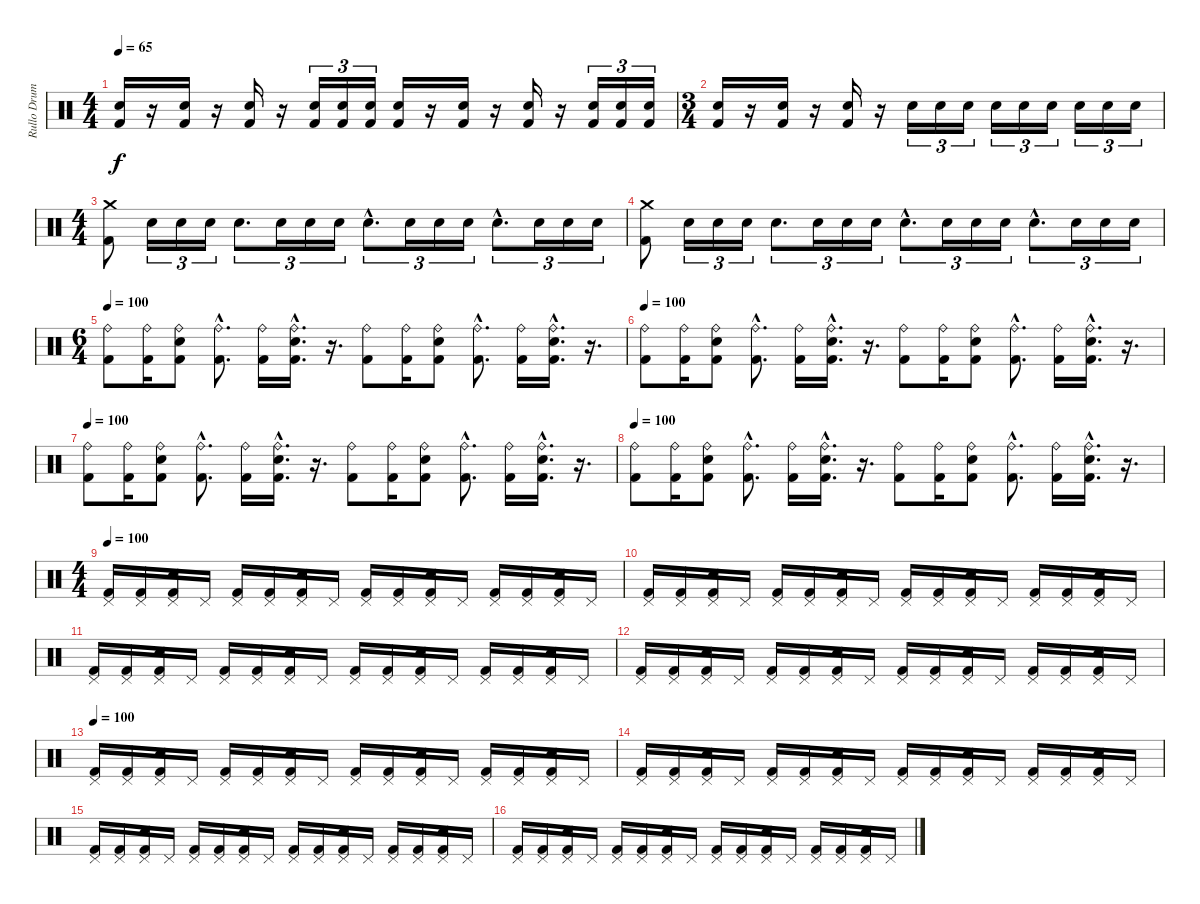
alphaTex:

\track ("Rullo Drums" "Rullo Drum") {instrument percussion}
\staff {score}
\articulation defaults
\ts (4 4)
\tempo 65
\clef neutral
\ks c
("Kick (hit) 2" "Snare (hit) 2").16{dy f} r.16 ("Kick (hit) 2" "Snare (hit) 2").16 r.16 ("Kick (hit) 2" "Snare (hit) 2").16 r.16 ("Kick (hit) 2" "Snare (hit) 2").16{tu (3 2)} ("Kick (hit) 2" "Snare (hit) 2").16{tu (3 2)} ("Kick (hit) 2" "Snare (hit) 2").16{tu (3 2)} ("Kick (hit) 2" "Snare (hit) 2").16 r.16 ("Kick (hit) 2" "Snare (hit) 2").16 r.16 ("Kick (hit) 2" "Snare (hit) 2").16 r.16 ("Kick (hit) 2" "Snare (hit) 2").16{tu (3 2)} ("Kick (hit) 2" "Snare (hit) 2").16{tu (3 2)} ("Kick (hit) 2" "Snare (hit) 2").16{tu (3 2)} |
\ts (3 4)
("Kick (hit) 2" "Snare (hit) 2").16 r.16 ("Kick (hit) 2" "Snare (hit) 2").16 r.16 ("Kick (hit) 2" "Snare (hit) 2").16 r.16 "Snare (hit) 2".16{tu (3 2)} "Snare (hit) 2".16{tu (3 2)} "Snare (hit) 2".16{tu (3 2)} "Snare (hit) 2".16{tu (3 2)} "Snare (hit) 2".16{tu (3 2)} "Snare (hit) 2".16{tu (3 2)} "Snare (hit) 2".16{tu (3 2)} "Snare (hit) 2".16{tu (3 2)} "Snare (hit) 2".16{tu (3 2)} |
\ts (4 4)
("Kick (hit) 2" "Crash medium (hit)").8 "Snare (hit) 2".16{tu (3 2)} "Snare (hit) 2".16{tu (3 2)} "Snare (hit) 2".16{tu (3 2)} "Snare (hit) 2".8{d tu (3 2)} "Snare (hit) 2".16{tu (3 2)} "Snare (hit) 2".16{tu (3 2)} "Snare (hit) 2".16{tu (3 2)} "Snare (hit) 2"{hac}.8{d tu (3 2)} "Snare (hit) 2".16{tu (3 2)} "Snare (hit) 2".16{tu (3 2)} "Snare (hit) 2".16{tu (3 2)} "Snare (hit) 2"{hac}.8{d tu (3 2)} "Snare (hit) 2".16{tu (3 2)} "Snare (hit) 2".16{tu (3 2)} "Snare (hit) 2".16{tu (3 2)} |
("Kick (hit) 2" "Crash medium (hit)").8 "Snare (hit) 2".16{tu (3 2)} "Snare (hit) 2".16{tu (3 2)} "Snare (hit) 2".16{tu (3 2)} "Snare (hit) 2".8{d tu (3 2)} "Snare (hit) 2".16{tu (3 2)} "Snare (hit) 2".16{tu (3 2)} "Snare (hit) 2".16{tu (3 2)} "Snare (hit) 2"{hac}.8{d tu (3 2)} "Snare (hit) 2".16{tu (3 2)} "Snare (hit) 2".16{tu (3 2)} "Snare (hit) 2".16{tu (3 2)} "Snare (hit) 2"{hac}.8{d tu (3 2)} "Snare (hit) 2".16{tu (3 2)} "Snare (hit) 2".16{tu (3 2)} "Snare (hit) 2".16{tu (3 2)} |
\ts (6 4)
\tempo 100
("Kick (hit) 2" "Ride (bell)").8 ("Kick (hit) 2" "Ride (bell)").16 ("Kick (hit) 2" "Snare (hit) 2" "Ride (bell)").8 ("Kick (hit) 2"{hac} "Ride (bell)"{hac}).8{d} ("Kick (hit) 2" "Ride (bell)").16 ("Kick (hit) 2"{hac} "Snare (hit) 2"{hac} "Ride (bell)"{hac}).16{d} r.16{d} ("Kick (hit) 2" "Ride (bell)").8 ("Kick (hit) 2" "Ride (bell)").16 ("Kick (hit) 2" "Snare (hit) 2" "Ride (bell)").8 ("Kick (hit) 2"{hac} "Ride (bell)"{hac}).8{d} ("Kick (hit) 2" "Ride (bell)").16 ("Kick (hit) 2"{hac} "Snare (hit) 2"{hac} "Ride (bell)"{hac}).16{d} r.16{d} |
\tempo 100
("Kick (hit) 2" "Ride (bell)").8 ("Kick (hit) 2" "Ride (bell)").16 ("Kick (hit) 2" "Snare (hit) 2" "Ride (bell)").8 ("Kick (hit) 2"{hac} "Ride (bell)"{hac}).8{d} ("Kick (hit) 2" "Ride (bell)").16 ("Kick (hit) 2"{hac} "Snare (hit) 2"{hac} "Ride (bell)"{hac}).16{d} r.16{d} ("Kick (hit) 2" "Ride (bell)").8 ("Kick (hit) 2" "Ride (bell)").16 ("Kick (hit) 2" "Snare (hit) 2" "Ride (bell)").8 ("Kick (hit) 2"{hac} "Ride (bell)"{hac}).8{d} ("Kick (hit) 2" "Ride (bell)").16 ("Kick (hit) 2"{hac} "Snare (hit) 2"{hac} "Ride (bell)"{hac}).16{d} r.16{d} |
\tempo 100
("Kick (hit) 2" "Ride (bell)").8 ("Kick (hit) 2" "Ride (bell)").16 ("Kick (hit) 2" "Snare (hit) 2" "Ride (bell)").8 ("Kick (hit) 2"{hac} "Ride (bell)"{hac}).8{d} ("Kick (hit) 2" "Ride (bell)").16 ("Kick (hit) 2"{hac} "Snare (hit) 2"{hac} "Ride (bell)"{hac}).16{d} r.16{d} ("Kick (hit) 2" "Ride (bell)").8 ("Kick (hit) 2" "Ride (bell)").16 ("Kick (hit) 2" "Snare (hit) 2" "Ride (bell)").8 ("Kick (hit) 2"{hac} "Ride (bell)"{hac}).8{d} ("Kick (hit) 2" "Ride (bell)").16 ("Kick (hit) 2"{hac} "Snare (hit) 2"{hac} "Ride (bell)"{hac}).16{d} r.16{d} |
\tempo 100
("Kick (hit) 2" "Ride (bell)").8 ("Kick (hit) 2" "Ride (bell)").16 ("Kick (hit) 2" "Snare (hit) 2" "Ride (bell)").8 ("Kick (hit) 2"{hac} "Ride (bell)"{hac}).8{d} ("Kick (hit) 2" "Ride (bell)").16 ("Kick (hit) 2"{hac} "Snare (hit) 2"{hac} "Ride (bell)"{hac}).16{d} r.16{d} ("Kick (hit) 2" "Ride (bell)").8 ("Kick (hit) 2" "Ride (bell)").16 ("Kick (hit) 2" "Snare (hit) 2" "Ride (bell)").8 ("Kick (hit) 2"{hac} "Ride (bell)"{hac}).8{d} ("Kick (hit) 2" "Ride (bell)").16 ("Kick (hit) 2"{hac} "Snare (hit) 2"{hac} "Ride (bell)"{hac}).16{d} r.16{d} |
\ts (4 4)
\tempo 100
("Kick (hit) 2" "Pedal Hi-Hat (hit)").16 ("Kick (hit) 2" "Pedal Hi-Hat (hit)").16 ("Kick (hit) 2" "Snare (hit) 2" "Pedal Hi-Hat (hit)").16 "Pedal Hi-Hat (hit)".16 ("Kick (hit) 2" "Pedal Hi-Hat (hit)").16 ("Kick (hit) 2" "Pedal Hi-Hat (hit)").16 ("Kick (hit) 2" "Snare (hit) 2" "Pedal Hi-Hat (hit)").16 "Pedal Hi-Hat (hit)".16 ("Kick (hit) 2" "Pedal Hi-Hat (hit)").16 ("Kick (hit) 2" "Pedal Hi-Hat (hit)").16 ("Kick (hit) 2" "Snare (hit) 2" "Pedal Hi-Hat (hit)").16 "Pedal Hi-Hat (hit)".16 ("Kick (hit) 2" "Pedal Hi-Hat (hit)").16 ("Kick (hit) 2" "Pedal Hi-Hat (hit)").16 ("Kick (hit) 2" "Snare (hit) 2" "Pedal Hi-Hat (hit)").16 "Pedal Hi-Hat (hit)".16 |
("Kick (hit) 2" "Pedal Hi-Hat (hit)").16 ("Kick (hit) 2" "Pedal Hi-Hat (hit)").16 ("Kick (hit) 2" "Snare (hit) 2" "Pedal Hi-Hat (hit)").16 "Pedal Hi-Hat (hit)".16 ("Kick (hit) 2" "Pedal Hi-Hat (hit)").16 ("Kick (hit) 2" "Pedal Hi-Hat (hit)").16 ("Kick (hit) 2" "Snare (hit) 2" "Pedal Hi-Hat (hit)").16 "Pedal Hi-Hat (hit)".16 ("Kick (hit) 2" "Pedal Hi-Hat (hit)").16 ("Kick (hit) 2" "Pedal Hi-Hat (hit)").16 ("Kick (hit) 2" "Snare (hit) 2" "Pedal Hi-Hat (hit)").16 "Pedal Hi-Hat (hit)".16 ("Kick (hit) 2" "Pedal Hi-Hat (hit)").16 ("Kick (hit) 2" "Pedal Hi-Hat (hit)").16 ("Kick (hit) 2" "Snare (hit) 2" "Pedal Hi-Hat (hit)").16 "Pedal Hi-Hat (hit)".16 |
("Kick (hit) 2" "Pedal Hi-Hat (hit)").16 ("Kick (hit) 2" "Pedal Hi-Hat (hit)").16 ("Kick (hit) 2" "Snare (hit) 2" "Pedal Hi-Hat (hit)").16 "Pedal Hi-Hat (hit)".16 ("Kick (hit) 2" "Pedal Hi-Hat (hit)").16 ("Kick (hit) 2" "Pedal Hi-Hat (hit)").16 ("Kick (hit) 2" "Snare (hit) 2" "Pedal Hi-Hat (hit)").16 "Pedal Hi-Hat (hit)".16 ("Kick (hit) 2" "Pedal Hi-Hat (hit)").16 ("Kick (hit) 2" "Pedal Hi-Hat (hit)").16 ("Kick (hit) 2" "Snare (hit) 2" "Pedal Hi-Hat (hit)").16 "Pedal Hi-Hat (hit)".16 ("Kick (hit) 2" "Pedal Hi-Hat (hit)").16 ("Kick (hit) 2" "Pedal Hi-Hat (hit)").16 ("Kick (hit) 2" "Snare (hit) 2" "Pedal Hi-Hat (hit)").16 "Pedal Hi-Hat (hit)".16 |
("Kick (hit) 2" "Pedal Hi-Hat (hit)").16 ("Kick (hit) 2" "Pedal Hi-Hat (hit)").16 ("Kick (hit) 2" "Snare (hit) 2" "Pedal Hi-Hat (hit)").16 "Pedal Hi-Hat (hit)".16 ("Kick (hit) 2" "Pedal Hi-Hat (hit)").16 ("Kick (hit) 2" "Pedal Hi-Hat (hit)").16 ("Kick (hit) 2" "Snare (hit) 2" "Pedal Hi-Hat (hit)").16 "Pedal Hi-Hat (hit)".16 ("Kick (hit) 2" "Pedal Hi-Hat (hit)").16 ("Kick (hit) 2" "Pedal Hi-Hat (hit)").16 ("Kick (hit) 2" "Snare (hit) 2" "Pedal Hi-Hat (hit)").16 "Pedal Hi-Hat (hit)".16 ("Kick (hit) 2" "Pedal Hi-Hat (hit)").16 ("Kick (hit) 2" "Pedal Hi-Hat (hit)").16 ("Kick (hit) 2" "Snare (hit) 2" "Pedal Hi-Hat (hit)").16 "Pedal Hi-Hat (hit)".16 |
\tempo 100
("Kick (hit) 2" "Pedal Hi-Hat (hit)").16 ("Kick (hit) 2" "Pedal Hi-Hat (hit)").16 ("Kick (hit) 2" "Snare (hit) 2" "Pedal Hi-Hat (hit)").16 "Pedal Hi-Hat (hit)".16 ("Kick (hit) 2" "Pedal Hi-Hat (hit)").16 ("Kick (hit) 2" "Pedal Hi-Hat (hit)").16 ("Kick (hit) 2" "Snare (hit) 2" "Pedal Hi-Hat (hit)").16 "Pedal Hi-Hat (hit)".16 ("Kick (hit) 2" "Pedal Hi-Hat (hit)").16 ("Kick (hit) 2" "Pedal Hi-Hat (hit)").16 ("Kick (hit) 2" "Snare (hit) 2" "Pedal Hi-Hat (hit)").16 "Pedal Hi-Hat (hit)".16 ("Kick (hit) 2" "Pedal Hi-Hat (hit)").16 ("Kick (hit) 2" "Pedal Hi-Hat (hit)").16 ("Kick (hit) 2" "Snare (hit) 2" "Pedal Hi-Hat (hit)").16 "Pedal Hi-Hat (hit)".16 |
("Kick (hit) 2" "Pedal Hi-Hat (hit)").16 ("Kick (hit) 2" "Pedal Hi-Hat (hit)").16 ("Kick (hit) 2" "Snare (hit) 2" "Pedal Hi-Hat (hit)").16 "Pedal Hi-Hat (hit)".16 ("Kick (hit) 2" "Pedal Hi-Hat (hit)").16 ("Kick (hit) 2" "Pedal Hi-Hat (hit)").16 ("Kick (hit) 2" "Snare (hit) 2" "Pedal Hi-Hat (hit)").16 "Pedal Hi-Hat (hit)".16 ("Kick (hit) 2" "Pedal Hi-Hat (hit)").16 ("Kick (hit) 2" "Pedal Hi-Hat (hit)").16 ("Kick (hit) 2" "Snare (hit) 2" "Pedal Hi-Hat (hit)").16 "Pedal Hi-Hat (hit)".16 ("Kick (hit) 2" "Pedal Hi-Hat (hit)").16 ("Kick (hit) 2" "Pedal Hi-Hat (hit)").16 ("Kick (hit) 2" "Snare (hit) 2" "Pedal Hi-Hat (hit)").16 "Pedal Hi-Hat (hit)".16 |
("Kick (hit) 2" "Pedal Hi-Hat (hit)").16 ("Kick (hit) 2" "Pedal Hi-Hat (hit)").16 ("Kick (hit) 2" "Snare (hit) 2" "Pedal Hi-Hat (hit)").16 "Pedal Hi-Hat (hit)".16 ("Kick (hit) 2" "Pedal Hi-Hat (hit)").16 ("Kick (hit) 2" "Pedal Hi-Hat (hit)").16 ("Kick (hit) 2" "Snare (hit) 2" "Pedal Hi-Hat (hit)").16 "Pedal Hi-Hat (hit)".16 ("Kick (hit) 2" "Pedal Hi-Hat (hit)").16 ("Kick (hit) 2" "Pedal Hi-Hat (hit)").16 ("Kick (hit) 2" "Snare (hit) 2" "Pedal Hi-Hat (hit)").16 "Pedal Hi-Hat (hit)".16 ("Kick (hit) 2" "Pedal Hi-Hat (hit)").16 ("Kick (hit) 2" "Pedal Hi-Hat (hit)").16 ("Kick (hit) 2" "Snare (hit) 2" "Pedal Hi-Hat (hit)").16 "Pedal Hi-Hat (hit)".16 |
("Kick (hit) 2" "Pedal Hi-Hat (hit)").16 ("Kick (hit) 2" "Pedal Hi-Hat (hit)").16 ("Kick (hit) 2" "Snare (hit) 2" "Pedal Hi-Hat (hit)").16 "Pedal Hi-Hat (hit)".16 ("Kick (hit) 2" "Pedal Hi-Hat (hit)").16 ("Kick (hit) 2" "Pedal Hi-Hat (hit)").16 ("Kick (hit) 2" "Snare (hit) 2" "Pedal Hi-Hat (hit)").16 "Pedal Hi-Hat (hit)".16 ("Kick (hit) 2" "Pedal Hi-Hat (hit)").16 ("Kick (hit) 2" "Pedal Hi-Hat (hit)").16 ("Kick (hit) 2" "Snare (hit) 2" "Pedal Hi-Hat (hit)").16 "Pedal Hi-Hat (hit)".16 ("Kick (hit) 2" "Pedal Hi-Hat (hit)").16 ("Kick (hit) 2" "Pedal Hi-Hat (hit)").16 ("Kick (hit) 2" "Snare (hit) 2" "Pedal Hi-Hat (hit)").16 "Pedal Hi-Hat (hit)".16
